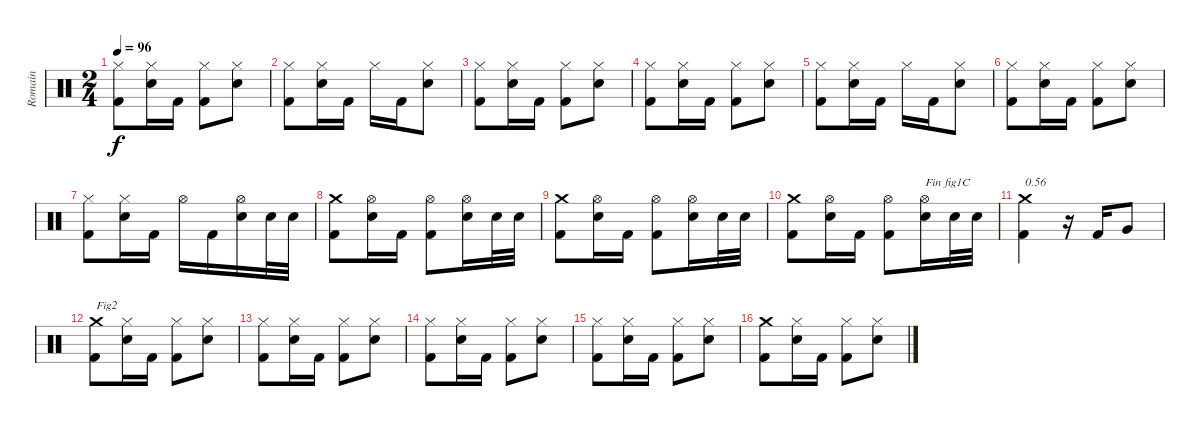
\track ("Romain" "Romain") {instrument percussion}
\staff {score}
\articulation defaults
\ts (2 4)
\tempo 96
\clef neutral
\ks c
("Kick (hit) 2" "Hi-Hat (closed)").8{dy f} ("Electric Snare (hit)" "Hi-Hat (closed)").16 "Kick (hit) 2".16 ("Kick (hit) 2" "Hi-Hat (closed)").8 ("Electric Snare (hit)" "Hi-Hat (closed)").8 |
("Kick (hit) 2" "Hi-Hat (closed)").8 ("Electric Snare (hit)" "Hi-Hat (closed)").16 "Kick (hit) 2".16 "Hi-Hat (closed)".16 "Kick (hit) 2".16 ("Electric Snare (hit)" "Hi-Hat (closed)").8 |
("Kick (hit) 2" "Hi-Hat (closed)").8 ("Electric Snare (hit)" "Hi-Hat (closed)").16 "Kick (hit) 2".16 ("Kick (hit) 2" "Hi-Hat (closed)").8 ("Electric Snare (hit)" "Hi-Hat (closed)").8 |
("Kick (hit) 2" "Hi-Hat (closed)").8 ("Electric Snare (hit)" "Hi-Hat (closed)").16 "Kick (hit) 2".16 ("Kick (hit) 2" "Hi-Hat (closed)").8 ("Electric Snare (hit)" "Hi-Hat (closed)").8 |
("Kick (hit) 2" "Hi-Hat (closed)").8 ("Electric Snare (hit)" "Hi-Hat (closed)").16 "Kick (hit) 2".16 "Hi-Hat (closed)".16 "Kick (hit) 2".16 ("Electric Snare (hit)" "Hi-Hat (closed)").8 |
("Kick (hit) 2" "Hi-Hat (closed)").8 ("Electric Snare (hit)" "Hi-Hat (closed)").16 "Kick (hit) 2".16 ("Kick (hit) 2" "Hi-Hat (closed)").8 ("Electric Snare (hit)" "Hi-Hat (closed)").8 |
("Kick (hit) 2" "Hi-Hat (closed)").8 ("Electric Snare (hit)" "Hi-Hat (closed)").16 "Kick (hit) 2".16 "Hi-Hat (open)".16 "Kick (hit) 2".16 ("Electric Snare (hit)" "Hi-Hat (open)").16 "Electric Snare (hit)".32 "Electric Snare (hit)".32 |
("Kick (hit) 2" "Crash medium (hit)").8 ("Electric Snare (hit)" "Hi-Hat (open)").16 "Kick (hit) 2".16 ("Kick (hit) 2" "Hi-Hat (open)").8 ("Electric Snare (hit)" "Hi-Hat (open)").16 "Electric Snare (hit)".32 "Electric Snare (hit)".32 |
("Kick (hit) 2" "Crash medium (hit)").8 ("Electric Snare (hit)" "Hi-Hat (open)").16 "Kick (hit) 2".16 ("Kick (hit) 2" "Hi-Hat (open)").8 ("Electric Snare (hit)" "Hi-Hat (open)").16 "Electric Snare (hit)".32 "Electric Snare (hit)".32 |
("Kick (hit) 2" "Crash medium (hit)").8 ("Electric Snare (hit)" "Hi-Hat (open)").16 "Kick (hit) 2".16 ("Kick (hit) 2" "Hi-Hat (open)").8 ("Electric Snare (hit)" "Hi-Hat (open)").16{txt "Fin fig1C"} "Electric Snare (hit)".32 "Electric Snare (hit)".32 |
("Kick (hit) 2" "Crash medium (hit)").4{txt "0.56"} r.16 "Kick (hit) 2".16 "Very Low Tom (hit)".8 |
("Kick (hit) 2" "Crash medium (hit)").8{txt "Fig2"} ("Electric Snare (hit)" "Hi-Hat (closed)").16 "Kick (hit) 2".16 ("Kick (hit) 2" "Hi-Hat (closed)").8 ("Electric Snare (hit)" "Hi-Hat (closed)").8 |
("Kick (hit) 2" "Hi-Hat (closed)").8 ("Electric Snare (hit)" "Hi-Hat (closed)").16 "Kick (hit) 2".16 ("Kick (hit) 2" "Hi-Hat (closed)").8 ("Electric Snare (hit)" "Hi-Hat (closed)").8 |
("Kick (hit) 2" "Hi-Hat (closed)").8 ("Electric Snare (hit)" "Hi-Hat (closed)").16 "Kick (hit) 2".16 ("Kick (hit) 2" "Hi-Hat (closed)").8 ("Electric Snare (hit)" "Hi-Hat (closed)").8 |
("Kick (hit) 2" "Hi-Hat (closed)").8 ("Electric Snare (hit)" "Hi-Hat (closed)").16 "Kick (hit) 2".16 ("Kick (hit) 2" "Hi-Hat (closed)").8 ("Electric Snare (hit)" "Hi-Hat (closed)").8 |
("Kick (hit) 2" "Crash medium (hit)").8 ("Electric Snare (hit)" "Hi-Hat (closed)").16 "Kick (hit) 2".16 ("Kick (hit) 2" "Hi-Hat (closed)").8 ("Electric Snare (hit)" "Hi-Hat (closed)").8
